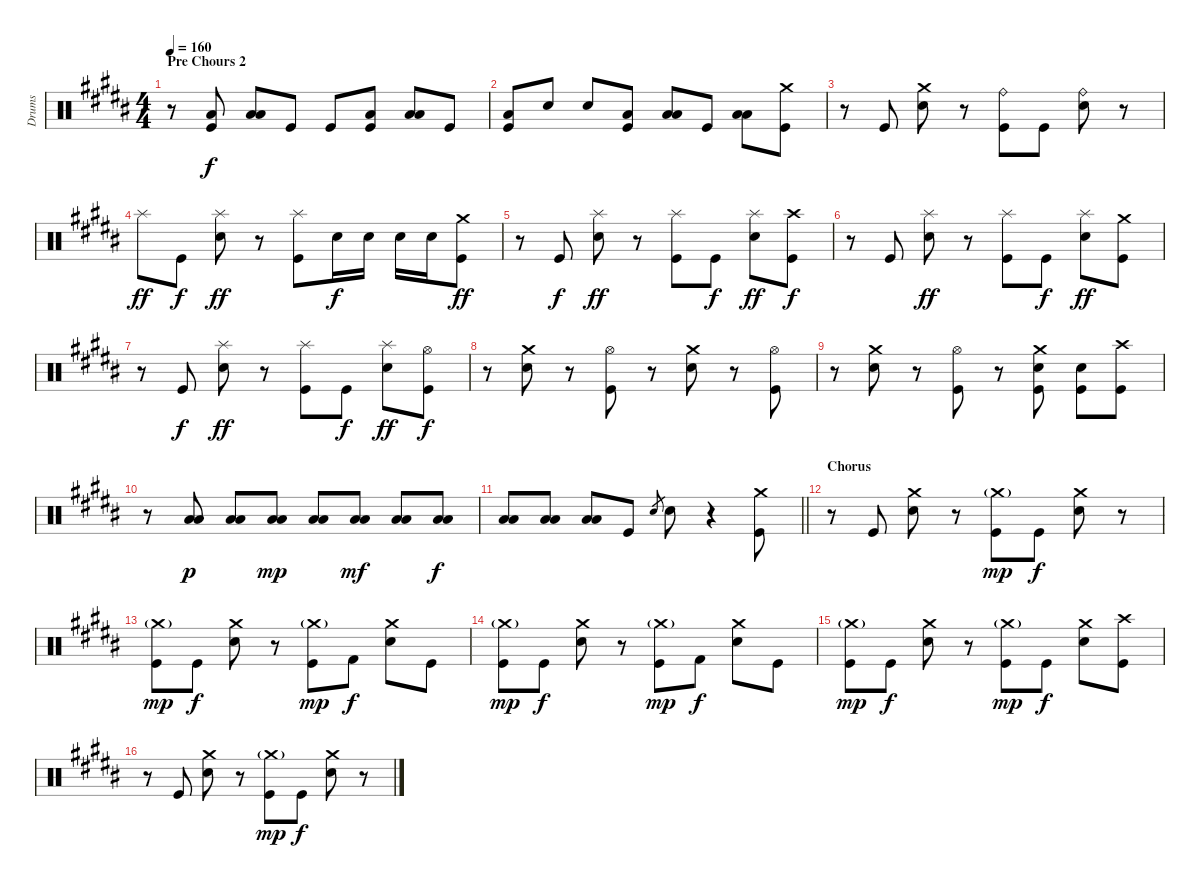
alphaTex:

\track ("Drums" "Drums") {instrument percussion}
\staff {score}
\articulation defaults
\ts (4 4)
\section ("" "Pre Chours 2")
\tempo 160
\clef neutral
\ks b
r.8{dy f} ("Low Floor Tom (hit)" "Kick (hit)").8 ("Low Tom (hit)" "Low Floor Tom (hit)").8 "Kick (hit)".8 "Kick (hit)".8 ("Low Floor Tom (hit)" "Kick (hit)").8 ("Low Tom (hit)" "Low Floor Tom (hit)").8 "Kick (hit)".8 |
("Low Tom (hit)" "Kick (hit)").8 "Snare (hit) 2".8 "Snare (hit) 2".8 ("Low Tom (hit)" "Kick (hit)").8 ("Low Tom (hit)" "Low Floor Tom (hit)").8 "Kick (hit)".8 ("Low Tom (hit)" "Low Floor Tom (hit)").8 ("Crash medium (hit)" "Kick (hit)").8 |
r.8 "Kick (hit)".8 ("Crash medium (hit)" "Snare (hit) 2").8 r.8 ("Ride (bell)" "Kick (hit)").8 "Kick (hit)".8 ("Ride (bell)" "Snare (hit) 2").8 r.8 |
"Splash (hit)".8{dy ff} "Kick (hit)".8{dy f} ("Splash (hit)" "Snare (hit) 2").8{dy ff} r.8 ("Splash (hit)" "Kick (hit)").8 "Snare (hit) 2".16{dy f} "Snare (hit) 2".16 "Snare (hit) 2".16 "Snare (hit) 2".16 ("Crash medium (hit)" "Kick (hit)").8{dy ff} |
r.8 "Kick (hit)".8{dy f} ("Splash (hit)" "Snare (hit) 2").8{dy ff} r.8 ("Splash (hit)" "Kick (hit)").8 "Kick (hit)".8{dy f} ("Splash (hit)" "Snare (hit) 2").8{dy ff} ("Crash high (hit)" "Kick (hit)").8{dy f} |
r.8 "Kick (hit)".8 ("Splash (hit)" "Snare (hit) 2").8{dy ff} r.8 ("Splash (hit)" "Kick (hit)").8 "Kick (hit)".8{dy f} ("Splash (hit)" "Snare (hit) 2").8{dy ff} ("Crash medium (hit)" "Kick (hit)").8 |
r.8 "Kick (hit)".8{dy f} ("Splash (hit)" "Snare (hit) 2").8{dy ff} r.8 ("Splash (hit)" "Kick (hit)").8 "Kick (hit)".8{dy f} ("Splash (hit)" "Snare (hit) 2").8{dy ff} ("Hi-Hat (open)" "Kick (hit)").8{dy f} |
r.8 ("Crash medium (hit)" "Snare (hit) 2").8 r.8 ("Hi-Hat (open)" "Kick (hit)").8 r.8 ("Crash medium (hit)" "Snare (hit) 2").8 r.8 ("Hi-Hat (open)" "Kick (hit)").8 |
r.8 ("Crash medium (hit)" "Snare (hit) 2").8 r.8 ("Hi-Hat (open)" "Kick (hit)").8 r.8 ("Crash medium (hit)" "Snare (hit) 2" "Kick (hit)").8 ("Snare (hit) 2" "Kick (hit)").8 ("Crash high (hit)" "Kick (hit)").8 |
r.8 ("Low Tom (hit)" "Low Floor Tom (hit)").8{dy p} ("Low Tom (hit)" "Low Floor Tom (hit)").8 ("Low Tom (hit)" "Low Floor Tom (hit)").8{dy mp} ("Low Tom (hit)" "Low Floor Tom (hit)").8 ("Low Tom (hit)" "Low Floor Tom (hit)").8{dy mf} ("Low Tom (hit)" "Low Floor Tom (hit)").8 ("Low Tom (hit)" "Low Floor Tom (hit)").8{dy f} |
\barLineRight lightlight
("Low Tom (hit)" "Low Floor Tom (hit)").8 ("Low Tom (hit)" "Low Floor Tom (hit)").8 ("Low Tom (hit)" "Low Floor Tom (hit)").8 "Kick (hit)".8 "Snare (hit) 2".8{gr} "Snare (hit) 2".8 r.4 ("Crash medium (hit)" "Kick (hit)").8 |
\section ("" "Chorus")
r.8 "Kick (hit)".8 ("Crash medium (hit)" "Snare (hit) 2").8 r.8 ("Crash medium (hit)"{g} "Kick (hit)").8{dy mp} "Kick (hit)".8{dy f} ("Crash medium (hit)" "Snare (hit) 2").8 r.8 |
("Crash medium (hit)"{g} "Kick (hit)").8{dy mp} "Kick (hit)".8{dy f} ("Crash medium (hit)" "Snare (hit) 2").8 r.8 ("Crash medium (hit)"{g} "Kick (hit)").8{dy mp} "Kick (hit) 2".8{dy f} ("Crash medium (hit)" "Snare (hit) 2").8 "Kick (hit)".8 |
("Crash medium (hit)"{g} "Kick (hit)").8{dy mp} "Kick (hit)".8{dy f} ("Crash medium (hit)" "Snare (hit) 2").8 r.8 ("Crash medium (hit)"{g} "Kick (hit)").8{dy mp} "Kick (hit) 2".8{dy f} ("Crash medium (hit)" "Snare (hit) 2").8 "Kick (hit)".8 |
("Crash medium (hit)"{g} "Kick (hit)").8{dy mp} "Kick (hit)".8{dy f} ("Crash medium (hit)" "Snare (hit) 2").8 r.8 ("Crash medium (hit)"{g} "Kick (hit)").8{dy mp} "Kick (hit)".8{dy f} ("Crash medium (hit)" "Snare (hit) 2").8 ("Crash high (hit)" "Kick (hit)").8 |
r.8 "Kick (hit)".8 ("Crash medium (hit)" "Snare (hit) 2").8 r.8 ("Crash medium (hit)"{g} "Kick (hit)").8{dy mp} "Kick (hit)".8{dy f} ("Crash medium (hit)" "Snare (hit) 2").8 r.8
